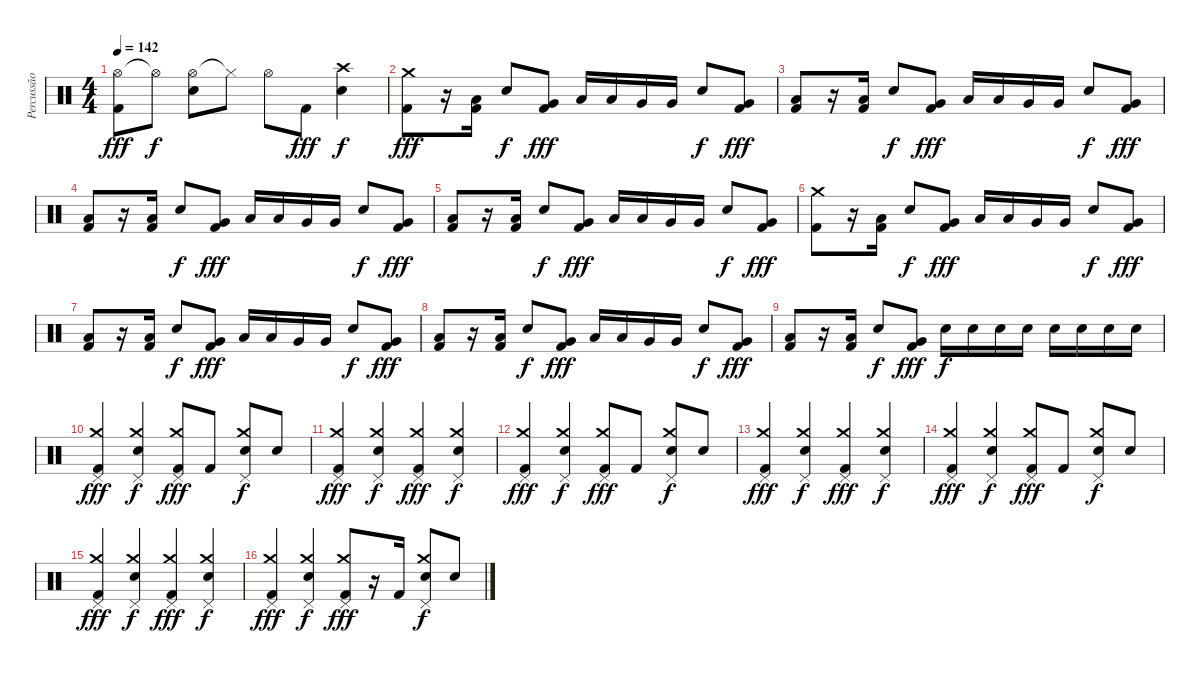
\track ("Percussão" "Percussão") {instrument percussion}
\staff {score}
\articulation defaults
\ts (4 4)
\tempo 142
\clef neutral
\ks c
("Hi-Hat (open)" "Kick (hit) 2").8{dy fff} "Hi-Hat (open)"{t}.8{dy f} ("Hi-Hat (open)" "Electric Snare (hit)").8 "Hi-Hat (closed)"{t}.8 "Hi-Hat (open)".8 "Kick (hit) 2".8{dy fff} ("Crash high (hit)" "Electric Snare (hit)").4{dy f} |
("Crash medium (hit)" "Kick (hit) 2").8{dy fff} r.16 ("Low Tom (hit)" "Kick (hit) 2").16 "Electric Snare (hit)".8{dy f} ("Very Low Tom (hit)" "Kick (hit) 2").8{dy fff} "Low Tom (hit)".16 "Low Tom (hit)".16 "Very Low Tom (hit)".16 "Very Low Tom (hit)".16 "Electric Snare (hit)".8{dy f} ("Very Low Tom (hit)" "Kick (hit) 2").8{dy fff} |
("Low Tom (hit)" "Kick (hit) 2").8 r.16 ("Low Tom (hit)" "Kick (hit) 2").16 "Electric Snare (hit)".8{dy f} ("Very Low Tom (hit)" "Kick (hit) 2").8{dy fff} "Low Tom (hit)".16 "Low Tom (hit)".16 "Very Low Tom (hit)".16 "Very Low Tom (hit)".16 "Electric Snare (hit)".8{dy f} ("Very Low Tom (hit)" "Kick (hit) 2").8{dy fff} |
("Low Tom (hit)" "Kick (hit) 2").8 r.16 ("Low Tom (hit)" "Kick (hit) 2").16 "Electric Snare (hit)".8{dy f} ("Very Low Tom (hit)" "Kick (hit) 2").8{dy fff} "Low Tom (hit)".16 "Low Tom (hit)".16 "Very Low Tom (hit)".16 "Very Low Tom (hit)".16 "Electric Snare (hit)".8{dy f} ("Very Low Tom (hit)" "Kick (hit) 2").8{dy fff} |
("Low Tom (hit)" "Kick (hit) 2").8 r.16 ("Low Tom (hit)" "Kick (hit) 2").16 "Electric Snare (hit)".8{dy f} ("Very Low Tom (hit)" "Kick (hit) 2").8{dy fff} "Low Tom (hit)".16 "Low Tom (hit)".16 "Very Low Tom (hit)".16 "Very Low Tom (hit)".16 "Electric Snare (hit)".8{dy f} ("Very Low Tom (hit)" "Kick (hit) 2").8{dy fff} |
("Crash medium (hit)" "Kick (hit) 2").8 r.16 ("Low Tom (hit)" "Kick (hit) 2").16 "Electric Snare (hit)".8{dy f} ("Very Low Tom (hit)" "Kick (hit) 2").8{dy fff} "Low Tom (hit)".16 "Low Tom (hit)".16 "Very Low Tom (hit)".16 "Very Low Tom (hit)".16 "Electric Snare (hit)".8{dy f} ("Very Low Tom (hit)" "Kick (hit) 2").8{dy fff} |
("Low Tom (hit)" "Kick (hit) 2").8 r.16 ("Low Tom (hit)" "Kick (hit) 2").16 "Electric Snare (hit)".8{dy f} ("Very Low Tom (hit)" "Kick (hit) 2").8{dy fff} "Low Tom (hit)".16 "Low Tom (hit)".16 "Very Low Tom (hit)".16 "Very Low Tom (hit)".16 "Electric Snare (hit)".8{dy f} ("Very Low Tom (hit)" "Kick (hit) 2").8{dy fff} |
("Low Tom (hit)" "Kick (hit) 2").8 r.16 ("Low Tom (hit)" "Kick (hit) 2").16 "Electric Snare (hit)".8{dy f} ("Very Low Tom (hit)" "Kick (hit) 2").8{dy fff} "Low Tom (hit)".16 "Low Tom (hit)".16 "Very Low Tom (hit)".16 "Very Low Tom (hit)".16 "Electric Snare (hit)".8{dy f} ("Very Low Tom (hit)" "Kick (hit) 2").8{dy fff} |
("Low Tom (hit)" "Kick (hit) 2").8 r.16 ("Low Tom (hit)" "Kick (hit) 2").16 "Electric Snare (hit)".8{dy f} ("Very Low Tom (hit)" "Kick (hit) 2").8{dy fff} "Electric Snare (hit)".16{dy f} "Electric Snare (hit)".16 "Electric Snare (hit)".16 "Electric Snare (hit)".16 "Electric Snare (hit)".16 "Electric Snare (hit)".16 "Electric Snare (hit)".16 "Electric Snare (hit)".16 |
("Crash medium (hit)" "Pedal Hi-Hat (hit)" "Kick (hit) 2").4{dy fff} ("Crash medium (hit)" "Pedal Hi-Hat (hit)" "Electric Snare (hit)").4{dy f} ("Crash medium (hit)" "Pedal Hi-Hat (hit)" "Kick (hit) 2").8{dy fff} "Kick (hit) 2".8 ("Crash medium (hit)" "Pedal Hi-Hat (hit)" "Electric Snare (hit)").8{dy f} "Electric Snare (hit)".8 |
("Crash medium (hit)" "Pedal Hi-Hat (hit)" "Kick (hit) 2").4{dy fff} ("Crash medium (hit)" "Pedal Hi-Hat (hit)" "Electric Snare (hit)").4{dy f} ("Crash medium (hit)" "Pedal Hi-Hat (hit)" "Kick (hit) 2").4{dy fff} ("Crash medium (hit)" "Pedal Hi-Hat (hit)" "Electric Snare (hit)").4{dy f} |
("Crash medium (hit)" "Pedal Hi-Hat (hit)" "Kick (hit) 2").4{dy fff} ("Crash medium (hit)" "Pedal Hi-Hat (hit)" "Electric Snare (hit)").4{dy f} ("Crash medium (hit)" "Pedal Hi-Hat (hit)" "Kick (hit) 2").8{dy fff} "Kick (hit) 2".8 ("Crash medium (hit)" "Pedal Hi-Hat (hit)" "Electric Snare (hit)").8{dy f} "Electric Snare (hit)".8 |
("Crash medium (hit)" "Pedal Hi-Hat (hit)" "Kick (hit) 2").4{dy fff} ("Crash medium (hit)" "Pedal Hi-Hat (hit)" "Electric Snare (hit)").4{dy f} ("Crash medium (hit)" "Pedal Hi-Hat (hit)" "Kick (hit) 2").4{dy fff} ("Crash medium (hit)" "Pedal Hi-Hat (hit)" "Electric Snare (hit)").4{dy f} |
("Crash medium (hit)" "Pedal Hi-Hat (hit)" "Kick (hit) 2").4{dy fff} ("Crash medium (hit)" "Pedal Hi-Hat (hit)" "Electric Snare (hit)").4{dy f} ("Crash medium (hit)" "Pedal Hi-Hat (hit)" "Kick (hit) 2").8{dy fff} "Kick (hit) 2".8 ("Crash medium (hit)" "Pedal Hi-Hat (hit)" "Electric Snare (hit)").8{dy f} "Electric Snare (hit)".8 |
("Crash medium (hit)" "Pedal Hi-Hat (hit)" "Kick (hit) 2").4{dy fff} ("Crash medium (hit)" "Pedal Hi-Hat (hit)" "Electric Snare (hit)").4{dy f} ("Crash medium (hit)" "Pedal Hi-Hat (hit)" "Kick (hit) 2").4{dy fff} ("Crash medium (hit)" "Pedal Hi-Hat (hit)" "Electric Snare (hit)").4{dy f} |
("Crash medium (hit)" "Pedal Hi-Hat (hit)" "Kick (hit) 2").4{dy fff} ("Crash medium (hit)" "Pedal Hi-Hat (hit)" "Electric Snare (hit)").4{dy f} ("Crash medium (hit)" "Pedal Hi-Hat (hit)" "Kick (hit) 2").8{dy fff} r.16 "Kick (hit) 2".16 ("Crash medium (hit)" "Pedal Hi-Hat (hit)" "Electric Snare (hit)").8{dy f} "Electric Snare (hit)".8
